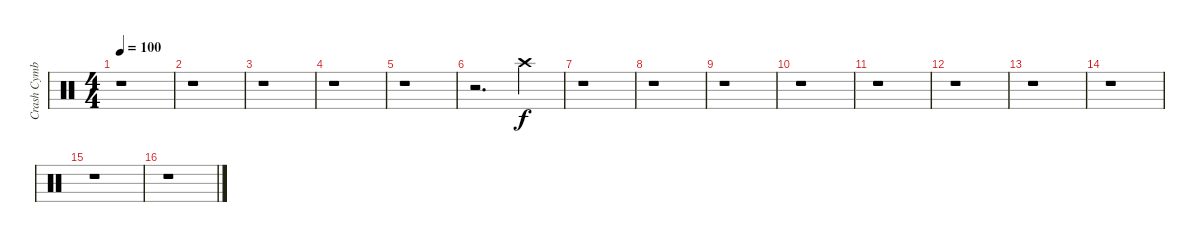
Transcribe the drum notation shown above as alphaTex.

\track ("Crash Cymbal" "Crash Cymb") {instrument percussion}
\staff {score}
\articulation defaults
\ts (4 4)
\tempo 100
\clef neutral
\ks c
r.1{dy f} |
r.1 |
r.1 |
r.1 |
r.1 |
r.2{d} "Crash high (hit)".4 |
r.1 |
r.1 |
r.1 |
r.1 |
r.1 |
r.1 |
r.1 |
r.1 |
r.1 |
r.1
